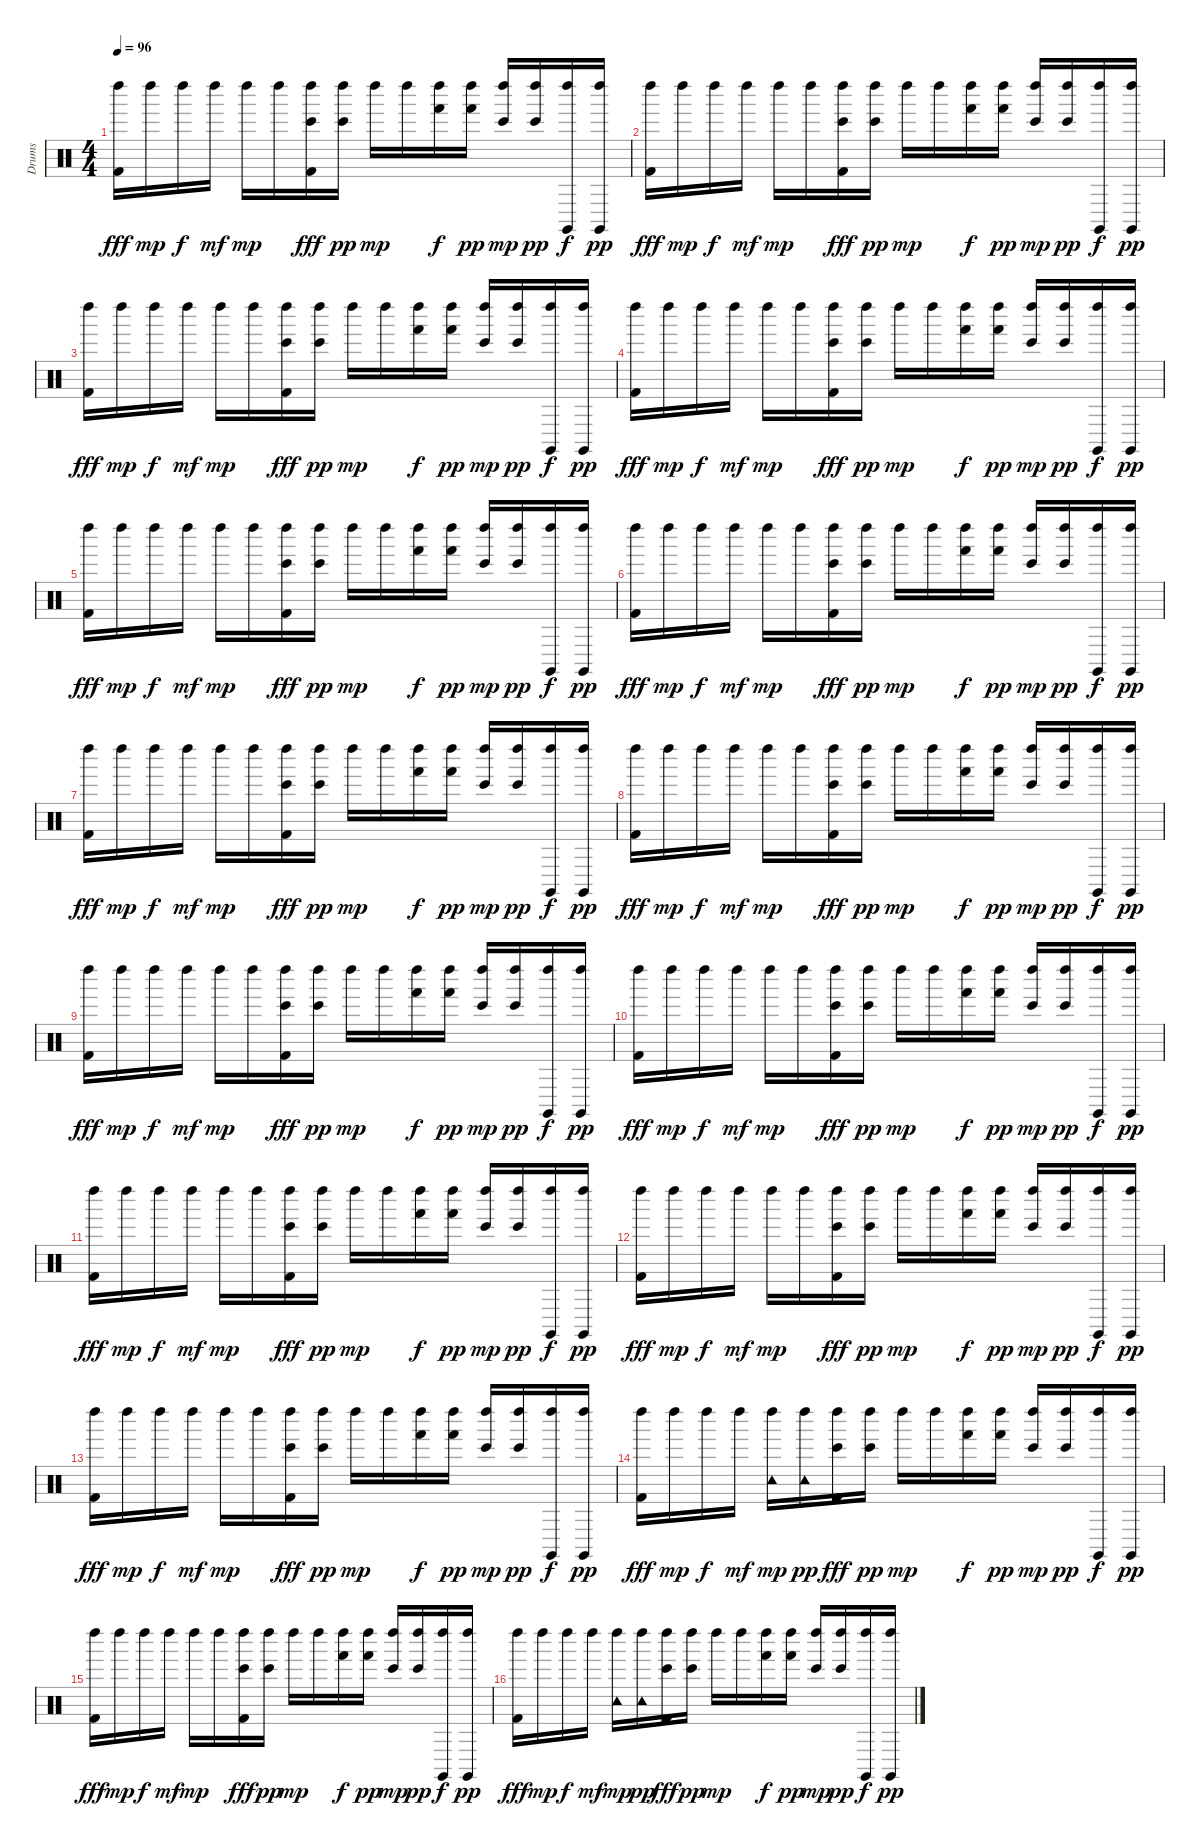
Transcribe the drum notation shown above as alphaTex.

\track ("Drums" "Drums") {instrument percussion}
\staff {score}
\articulation defaults
\ts (4 4)
\tempo 96
\clef neutral
\ks c
("Left Maraca (hit)" "Kick (hit) 2").16{dy fff} "Left Maraca (hit)".16{dy mp} "Left Maraca (hit)".16{dy f} "Left Maraca (hit)".16{dy mf} "Left Maraca (hit)".16{dy mp} "Left Maraca (hit)".16 ("Left Maraca (hit)" "Bongo High (hit)" "Kick (hit) 2").16{dy fff} ("Left Maraca (hit)" "Bongo High (hit)").16{dy pp} "Left Maraca (hit)".16{dy mp} "Left Maraca (hit)".16 ("Left Maraca (hit)" "Hand (hit)").16{dy f} ("Left Maraca (hit)" "Hand (hit)").16{dy pp} ("Left Maraca (hit)" "Bongo High (hit)").16{dy mp} ("Left Maraca (hit)" "Bongo High (hit)").16{dy pp} ("Left Maraca (hit)" "Claves (hit)").16{dy f} ("Left Maraca (hit)" "Claves (hit)").16{dy pp} |
("Left Maraca (hit)" "Kick (hit) 2").16{dy fff} "Left Maraca (hit)".16{dy mp} "Left Maraca (hit)".16{dy f} "Left Maraca (hit)".16{dy mf} "Left Maraca (hit)".16{dy mp} "Left Maraca (hit)".16 ("Left Maraca (hit)" "Bongo High (hit)" "Kick (hit) 2").16{dy fff} ("Left Maraca (hit)" "Bongo High (hit)").16{dy pp} "Left Maraca (hit)".16{dy mp} "Left Maraca (hit)".16 ("Left Maraca (hit)" "Hand (hit)").16{dy f} ("Left Maraca (hit)" "Hand (hit)").16{dy pp} ("Left Maraca (hit)" "Bongo High (hit)").16{dy mp} ("Left Maraca (hit)" "Bongo High (hit)").16{dy pp} ("Left Maraca (hit)" "Claves (hit)").16{dy f} ("Left Maraca (hit)" "Claves (hit)").16{dy pp} |
("Left Maraca (hit)" "Kick (hit) 2").16{dy fff} "Left Maraca (hit)".16{dy mp} "Left Maraca (hit)".16{dy f} "Left Maraca (hit)".16{dy mf} "Left Maraca (hit)".16{dy mp} "Left Maraca (hit)".16 ("Left Maraca (hit)" "Bongo High (hit)" "Kick (hit) 2").16{dy fff} ("Left Maraca (hit)" "Bongo High (hit)").16{dy pp} "Left Maraca (hit)".16{dy mp} "Left Maraca (hit)".16 ("Left Maraca (hit)" "Hand (hit)").16{dy f} ("Left Maraca (hit)" "Hand (hit)").16{dy pp} ("Left Maraca (hit)" "Bongo High (hit)").16{dy mp} ("Left Maraca (hit)" "Bongo High (hit)").16{dy pp} ("Left Maraca (hit)" "Claves (hit)").16{dy f} ("Left Maraca (hit)" "Claves (hit)").16{dy pp} |
("Left Maraca (hit)" "Kick (hit) 2").16{dy fff} "Left Maraca (hit)".16{dy mp} "Left Maraca (hit)".16{dy f} "Left Maraca (hit)".16{dy mf} "Left Maraca (hit)".16{dy mp} "Left Maraca (hit)".16 ("Left Maraca (hit)" "Bongo High (hit)" "Kick (hit) 2").16{dy fff} ("Left Maraca (hit)" "Bongo High (hit)").16{dy pp} "Left Maraca (hit)".16{dy mp} "Left Maraca (hit)".16 ("Left Maraca (hit)" "Hand (hit)").16{dy f} ("Left Maraca (hit)" "Hand (hit)").16{dy pp} ("Left Maraca (hit)" "Bongo High (hit)").16{dy mp} ("Left Maraca (hit)" "Bongo High (hit)").16{dy pp} ("Left Maraca (hit)" "Claves (hit)").16{dy f} ("Left Maraca (hit)" "Claves (hit)").16{dy pp} |
("Left Maraca (hit)" "Kick (hit) 2").16{dy fff} "Left Maraca (hit)".16{dy mp} "Left Maraca (hit)".16{dy f} "Left Maraca (hit)".16{dy mf} "Left Maraca (hit)".16{dy mp} "Left Maraca (hit)".16 ("Left Maraca (hit)" "Bongo High (hit)" "Kick (hit) 2").16{dy fff} ("Left Maraca (hit)" "Bongo High (hit)").16{dy pp} "Left Maraca (hit)".16{dy mp} "Left Maraca (hit)".16 ("Left Maraca (hit)" "Hand (hit)").16{dy f} ("Left Maraca (hit)" "Hand (hit)").16{dy pp} ("Left Maraca (hit)" "Bongo High (hit)").16{dy mp} ("Left Maraca (hit)" "Bongo High (hit)").16{dy pp} ("Left Maraca (hit)" "Claves (hit)").16{dy f} ("Left Maraca (hit)" "Claves (hit)").16{dy pp} |
("Left Maraca (hit)" "Kick (hit) 2").16{dy fff} "Left Maraca (hit)".16{dy mp} "Left Maraca (hit)".16{dy f} "Left Maraca (hit)".16{dy mf} "Left Maraca (hit)".16{dy mp} "Left Maraca (hit)".16 ("Left Maraca (hit)" "Bongo High (hit)" "Kick (hit) 2").16{dy fff} ("Left Maraca (hit)" "Bongo High (hit)").16{dy pp} "Left Maraca (hit)".16{dy mp} "Left Maraca (hit)".16 ("Left Maraca (hit)" "Hand (hit)").16{dy f} ("Left Maraca (hit)" "Hand (hit)").16{dy pp} ("Left Maraca (hit)" "Bongo High (hit)").16{dy mp} ("Left Maraca (hit)" "Bongo High (hit)").16{dy pp} ("Left Maraca (hit)" "Claves (hit)").16{dy f} ("Left Maraca (hit)" "Claves (hit)").16{dy pp} |
("Left Maraca (hit)" "Kick (hit) 2").16{dy fff} "Left Maraca (hit)".16{dy mp} "Left Maraca (hit)".16{dy f} "Left Maraca (hit)".16{dy mf} "Left Maraca (hit)".16{dy mp} "Left Maraca (hit)".16 ("Left Maraca (hit)" "Bongo High (hit)" "Kick (hit) 2").16{dy fff} ("Left Maraca (hit)" "Bongo High (hit)").16{dy pp} "Left Maraca (hit)".16{dy mp} "Left Maraca (hit)".16 ("Left Maraca (hit)" "Hand (hit)").16{dy f} ("Left Maraca (hit)" "Hand (hit)").16{dy pp} ("Left Maraca (hit)" "Bongo High (hit)").16{dy mp} ("Left Maraca (hit)" "Bongo High (hit)").16{dy pp} ("Left Maraca (hit)" "Claves (hit)").16{dy f} ("Left Maraca (hit)" "Claves (hit)").16{dy pp} |
("Left Maraca (hit)" "Kick (hit) 2").16{dy fff} "Left Maraca (hit)".16{dy mp} "Left Maraca (hit)".16{dy f} "Left Maraca (hit)".16{dy mf} "Left Maraca (hit)".16{dy mp} "Left Maraca (hit)".16 ("Left Maraca (hit)" "Bongo High (hit)" "Kick (hit) 2").16{dy fff} ("Left Maraca (hit)" "Bongo High (hit)").16{dy pp} "Left Maraca (hit)".16{dy mp} "Left Maraca (hit)".16 ("Left Maraca (hit)" "Hand (hit)").16{dy f} ("Left Maraca (hit)" "Hand (hit)").16{dy pp} ("Left Maraca (hit)" "Bongo High (hit)").16{dy mp} ("Left Maraca (hit)" "Bongo High (hit)").16{dy pp} ("Left Maraca (hit)" "Claves (hit)").16{dy f} ("Left Maraca (hit)" "Claves (hit)").16{dy pp} |
("Left Maraca (hit)" "Kick (hit) 2").16{dy fff} "Left Maraca (hit)".16{dy mp} "Left Maraca (hit)".16{dy f} "Left Maraca (hit)".16{dy mf} "Left Maraca (hit)".16{dy mp} "Left Maraca (hit)".16 ("Left Maraca (hit)" "Bongo High (hit)" "Kick (hit) 2").16{dy fff} ("Left Maraca (hit)" "Bongo High (hit)").16{dy pp} "Left Maraca (hit)".16{dy mp} "Left Maraca (hit)".16 ("Left Maraca (hit)" "Hand (hit)").16{dy f} ("Left Maraca (hit)" "Hand (hit)").16{dy pp} ("Left Maraca (hit)" "Bongo High (hit)").16{dy mp} ("Left Maraca (hit)" "Bongo High (hit)").16{dy pp} ("Left Maraca (hit)" "Claves (hit)").16{dy f} ("Left Maraca (hit)" "Claves (hit)").16{dy pp} |
("Left Maraca (hit)" "Kick (hit) 2").16{dy fff} "Left Maraca (hit)".16{dy mp} "Left Maraca (hit)".16{dy f} "Left Maraca (hit)".16{dy mf} "Left Maraca (hit)".16{dy mp} "Left Maraca (hit)".16 ("Left Maraca (hit)" "Bongo High (hit)" "Kick (hit) 2").16{dy fff} ("Left Maraca (hit)" "Bongo High (hit)").16{dy pp} "Left Maraca (hit)".16{dy mp} "Left Maraca (hit)".16 ("Left Maraca (hit)" "Hand (hit)").16{dy f} ("Left Maraca (hit)" "Hand (hit)").16{dy pp} ("Left Maraca (hit)" "Bongo High (hit)").16{dy mp} ("Left Maraca (hit)" "Bongo High (hit)").16{dy pp} ("Left Maraca (hit)" "Claves (hit)").16{dy f} ("Left Maraca (hit)" "Claves (hit)").16{dy pp} |
("Left Maraca (hit)" "Kick (hit) 2").16{dy fff} "Left Maraca (hit)".16{dy mp} "Left Maraca (hit)".16{dy f} "Left Maraca (hit)".16{dy mf} "Left Maraca (hit)".16{dy mp} "Left Maraca (hit)".16 ("Left Maraca (hit)" "Bongo High (hit)" "Kick (hit) 2").16{dy fff} ("Left Maraca (hit)" "Bongo High (hit)").16{dy pp} "Left Maraca (hit)".16{dy mp} "Left Maraca (hit)".16 ("Left Maraca (hit)" "Hand (hit)").16{dy f} ("Left Maraca (hit)" "Hand (hit)").16{dy pp} ("Left Maraca (hit)" "Bongo High (hit)").16{dy mp} ("Left Maraca (hit)" "Bongo High (hit)").16{dy pp} ("Left Maraca (hit)" "Claves (hit)").16{dy f} ("Left Maraca (hit)" "Claves (hit)").16{dy pp} |
("Left Maraca (hit)" "Kick (hit) 2").16{dy fff} "Left Maraca (hit)".16{dy mp} "Left Maraca (hit)".16{dy f} "Left Maraca (hit)".16{dy mf} "Left Maraca (hit)".16{dy mp} "Left Maraca (hit)".16 ("Left Maraca (hit)" "Bongo High (hit)" "Kick (hit) 2").16{dy fff} ("Left Maraca (hit)" "Bongo High (hit)").16{dy pp} "Left Maraca (hit)".16{dy mp} "Left Maraca (hit)".16 ("Left Maraca (hit)" "Hand (hit)").16{dy f} ("Left Maraca (hit)" "Hand (hit)").16{dy pp} ("Left Maraca (hit)" "Bongo High (hit)").16{dy mp} ("Left Maraca (hit)" "Bongo High (hit)").16{dy pp} ("Left Maraca (hit)" "Claves (hit)").16{dy f} ("Left Maraca (hit)" "Claves (hit)").16{dy pp} |
("Left Maraca (hit)" "Kick (hit) 2").16{dy fff} "Left Maraca (hit)".16{dy mp} "Left Maraca (hit)".16{dy f} "Left Maraca (hit)".16{dy mf} "Left Maraca (hit)".16{dy mp} "Left Maraca (hit)".16 ("Left Maraca (hit)" "Bongo High (hit)" "Kick (hit) 2").16{dy fff} ("Left Maraca (hit)" "Bongo High (hit)").16{dy pp} "Left Maraca (hit)".16{dy mp} "Left Maraca (hit)".16 ("Left Maraca (hit)" "Hand (hit)").16{dy f} ("Left Maraca (hit)" "Hand (hit)").16{dy pp} ("Left Maraca (hit)" "Bongo High (hit)").16{dy mp} ("Left Maraca (hit)" "Bongo High (hit)").16{dy pp} ("Left Maraca (hit)" "Claves (hit)").16{dy f} ("Left Maraca (hit)" "Claves (hit)").16{dy pp} |
("Left Maraca (hit)" "Kick (hit) 2").16{dy fff} "Left Maraca (hit)".16{dy mp} "Left Maraca (hit)".16{dy f} "Left Maraca (hit)".16{dy mf} ("Left Maraca (hit)" "Tambourine (hit)").16{dy mp} ("Left Maraca (hit)" "Tambourine (hit)").16{dy pp} ("Left Maraca (hit)" "Bongo High (hit)" "Kick (hit) 2").16{dy fff} ("Left Maraca (hit)" "Bongo High (hit)").16{dy pp} "Left Maraca (hit)".16{dy mp} "Left Maraca (hit)".16 ("Left Maraca (hit)" "Hand (hit)").16{dy f} ("Left Maraca (hit)" "Hand (hit)").16{dy pp} ("Left Maraca (hit)" "Bongo High (hit)").16{dy mp} ("Left Maraca (hit)" "Bongo High (hit)").16{dy pp} ("Left Maraca (hit)" "Claves (hit)").16{dy f} ("Left Maraca (hit)" "Claves (hit)").16{dy pp} |
("Left Maraca (hit)" "Kick (hit) 2").16{dy fff} "Left Maraca (hit)".16{dy mp} "Left Maraca (hit)".16{dy f} "Left Maraca (hit)".16{dy mf} "Left Maraca (hit)".16{dy mp} "Left Maraca (hit)".16 ("Left Maraca (hit)" "Bongo High (hit)" "Kick (hit) 2").16{dy fff} ("Left Maraca (hit)" "Bongo High (hit)").16{dy pp} "Left Maraca (hit)".16{dy mp} "Left Maraca (hit)".16 ("Left Maraca (hit)" "Hand (hit)").16{dy f} ("Left Maraca (hit)" "Hand (hit)").16{dy pp} ("Left Maraca (hit)" "Bongo High (hit)").16{dy mp} ("Left Maraca (hit)" "Bongo High (hit)").16{dy pp} ("Left Maraca (hit)" "Claves (hit)").16{dy f} ("Left Maraca (hit)" "Claves (hit)").16{dy pp} |
("Left Maraca (hit)" "Kick (hit) 2").16{dy fff} "Left Maraca (hit)".16{dy mp} "Left Maraca (hit)".16{dy f} "Left Maraca (hit)".16{dy mf} ("Left Maraca (hit)" "Tambourine (hit)").16{dy mp} ("Left Maraca (hit)" "Tambourine (hit)").16{dy pp} ("Left Maraca (hit)" "Bongo High (hit)" "Kick (hit) 2").16{dy fff} ("Left Maraca (hit)" "Bongo High (hit)").16{dy pp} "Left Maraca (hit)".16{dy mp} "Left Maraca (hit)".16 ("Left Maraca (hit)" "Hand (hit)").16{dy f} ("Left Maraca (hit)" "Hand (hit)").16{dy pp} ("Left Maraca (hit)" "Bongo High (hit)").16{dy mp} ("Left Maraca (hit)" "Bongo High (hit)").16{dy pp} ("Left Maraca (hit)" "Claves (hit)").16{dy f} ("Left Maraca (hit)" "Claves (hit)").16{dy pp}
